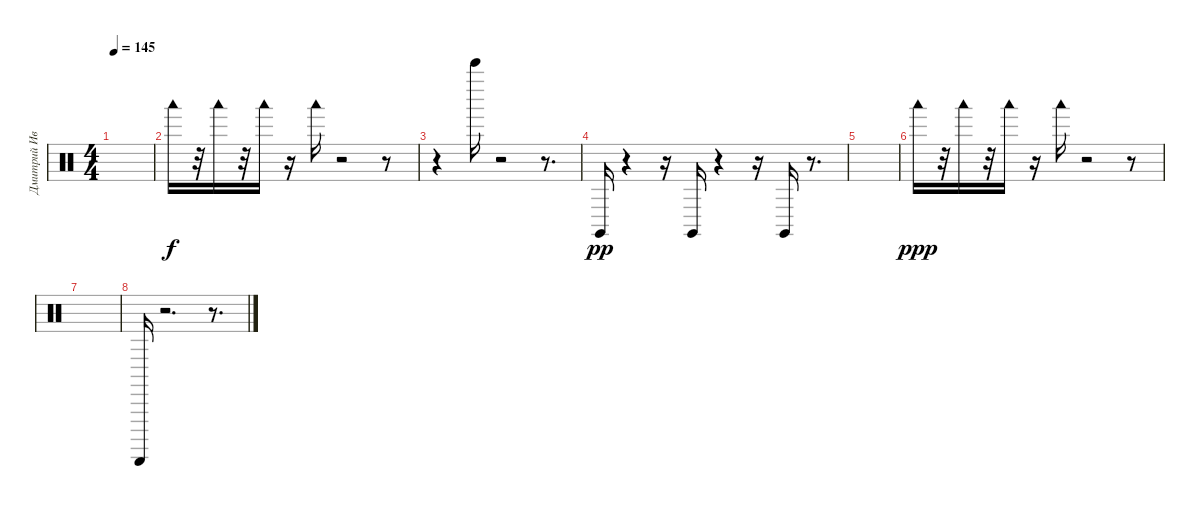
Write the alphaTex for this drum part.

\track ("Дмитрий Иванов" "Дмитрий Ив") {instrument percussion}
\staff {score}
\articulation defaults
\ts (4 4)
\tempo 145
\clef neutral
\ks c
|
"Woodblock low (hit)".16 r.32 "Woodblock low (hit)".16 r.32 "Woodblock low (hit)".16 r.16 "Woodblock low (hit)".16 r.2 r.8 |
r.4 "Bell Tree (hit)".16 r.2 r.8{d} |
"Claves (hit)".16{dy pp} r.4 r.16 "Claves (hit)".16 r.4 r.16 "Claves (hit)".16 r.8{d} |
|
"Woodblock low (hit)".16{dy ppp} r.32 "Woodblock low (hit)".16 r.32 "Woodblock low (hit)".16 r.16 "Woodblock low (hit)".16 r.2 r.8 |
|
"Guiro (scrap-return)".16 r.2{d} r.8{d}
